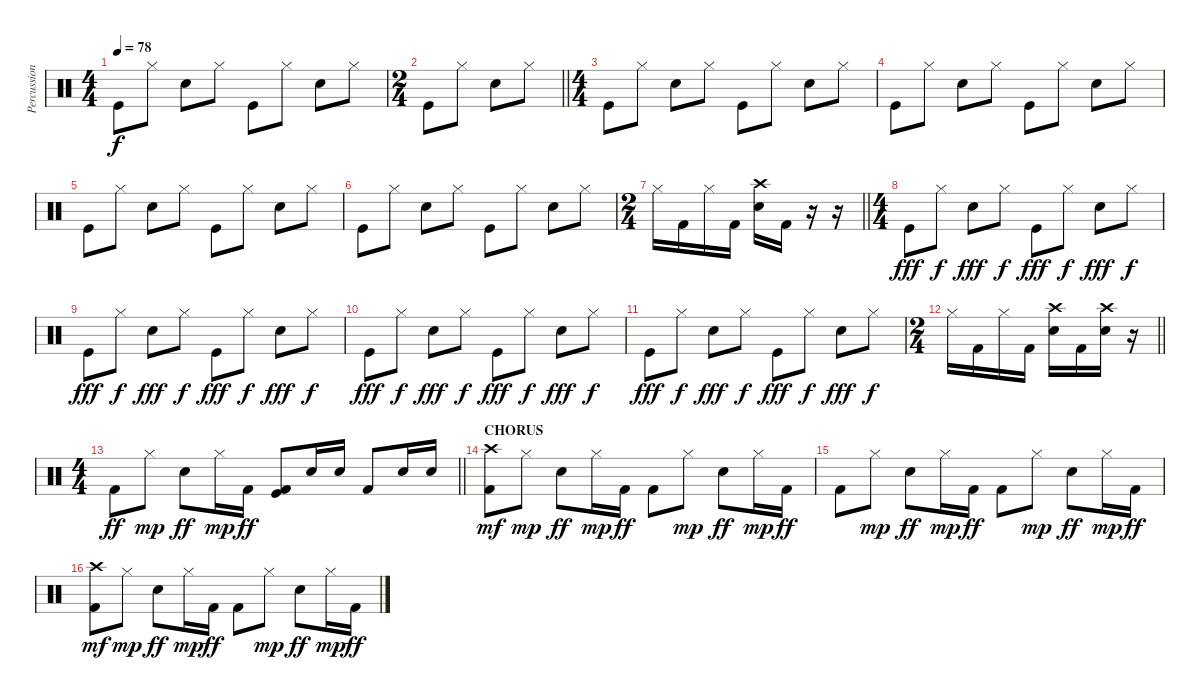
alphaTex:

\track ("Percussion" "Percussion") {instrument percussion}
\staff {score}
\articulation defaults
\ts (4 4)
\tempo 78
\clef neutral
\ks c "Kick (hit)".8{dy f} "Hi-Hat (closed)".8 "Electric Snare (hit)".8 "Hi-Hat (closed)".8 "Kick (hit)".8 "Hi-Hat (closed)".8 "Electric Snare (hit)".8 "Hi-Hat (closed)".8
|
\ts (2 4)
\barLineRight lightlight "Kick (hit)".8 "Hi-Hat (closed)".8 "Electric Snare (hit)".8 "Hi-Hat (closed)".8
|
\ts (4 4)
"Kick (hit)".8 "Hi-Hat (closed)".8 "Electric Snare (hit)".8 "Hi-Hat (closed)".8 "Kick (hit)".8 "Hi-Hat (closed)".8 "Electric Snare (hit)".8 "Hi-Hat (closed)".8 |
"Kick (hit)".8 "Hi-Hat (closed)".8 "Electric Snare (hit)".8 "Hi-Hat (closed)".8 "Kick (hit)".8 "Hi-Hat (closed)".8 "Electric Snare (hit)".8 "Hi-Hat (closed)".8 |
"Kick (hit)".8 "Hi-Hat (closed)".8 "Electric Snare (hit)".8 "Hi-Hat (closed)".8 "Kick (hit)".8 "Hi-Hat (closed)".8 "Electric Snare (hit)".8 "Hi-Hat (closed)".8 |
"Kick (hit)".8 "Hi-Hat (closed)".8 "Electric Snare (hit)".8 "Hi-Hat (closed)".8 "Kick (hit)".8 "Hi-Hat (closed)".8 "Electric Snare (hit)".8 "Hi-Hat (closed)".8 |
\ts (2 4)
\barLineRight lightlight "Hi-Hat (closed)".16 "Kick (hit) 2".16 "Hi-Hat (closed)".16 "Kick (hit) 2".16
("Crash high (hit)" "Snare (hit) 2").16 "Kick (hit) 2".16 r.16 r.16 |
\ts (4 4)
"Kick (hit)".8{dy fff} "Hi-Hat (closed)".8{dy f} "Electric Snare (hit)".8{dy fff} "Hi-Hat (closed)".8{dy f} "Kick (hit)".8{dy fff} "Hi-Hat (closed)".8{dy f} "Electric Snare (hit)".8{dy fff} "Hi-Hat (closed)".8{dy f} |
"Kick (hit)".8{dy fff} "Hi-Hat (closed)".8{dy f} "Electric Snare (hit)".8{dy fff} "Hi-Hat (closed)".8{dy f} "Kick (hit)".8{dy fff} "Hi-Hat (closed)".8{dy f} "Electric Snare (hit)".8{dy fff} "Hi-Hat (closed)".8{dy f} |
"Kick (hit)".8{dy fff} "Hi-Hat (closed)".8{dy f} "Electric Snare (hit)".8{dy fff} "Hi-Hat (closed)".8{dy f} "Kick (hit)".8{dy fff} "Hi-Hat (closed)".8{dy f} "Electric Snare (hit)".8{dy fff} "Hi-Hat (closed)".8{dy f} |
"Kick (hit)".8{dy fff} "Hi-Hat (closed)".8{dy f} "Electric Snare (hit)".8{dy fff} "Hi-Hat (closed)".8{dy f} "Kick (hit)".8{dy fff} "Hi-Hat (closed)".8{dy f} "Electric Snare (hit)".8{dy fff} "Hi-Hat (closed)".8{dy f} |
\ts (2 4)
\barLineRight lightlight "Hi-Hat (closed)".16 "Kick (hit) 2".16 "Hi-Hat (closed)".16 "Kick (hit) 2".16
("Crash high (hit)" "Snare (hit) 2").16 "Kick (hit) 2".16 ("Crash high (hit)" "Snare (hit) 2").16 r.16 |
\ts (4 4)
\barLineRight lightlight "Kick (hit) 2".8{dy ff} "Hi-Hat (closed)".8{dy mp} "Snare (hit) 2".8{dy ff} "Hi-Hat (closed)".16{dy mp} "Kick (hit) 2".16{dy ff}
("Kick (hit) 2" "Kick (hit)").8 "Electric Snare (hit)".16 "Electric Snare (hit)".16 "Kick (hit) 2".8 "Electric Snare (hit)".16 "Electric Snare (hit)".16 |
\section ("" "CHORUS")
("Kick (hit) 2" "Crash high (hit)").8{dy mf} "Hi-Hat (closed)".8{dy mp} "Snare (hit) 2".8{dy ff} "Hi-Hat (closed)".16{dy mp} "Kick (hit) 2".16{dy ff} "Kick (hit) 2".8 "Hi-Hat (closed)".8{dy mp} "Snare (hit) 2".8{dy ff} "Hi-Hat (closed)".16{dy mp} "Kick (hit) 2".16{dy ff} |
"Kick (hit) 2".8 "Hi-Hat (closed)".8{dy mp} "Snare (hit) 2".8{dy ff} "Hi-Hat (closed)".16{dy mp} "Kick (hit) 2".16{dy ff} "Kick (hit) 2".8 "Hi-Hat (closed)".8{dy mp} "Snare (hit) 2".8{dy ff} "Hi-Hat (closed)".16{dy mp} "Kick (hit) 2".16{dy ff} |
("Kick (hit) 2" "Crash high (hit)").8{dy mf} "Hi-Hat (closed)".8{dy mp} "Snare (hit) 2".8{dy ff} "Hi-Hat (closed)".16{dy mp} "Kick (hit) 2".16{dy ff} "Kick (hit) 2".8 "Hi-Hat (closed)".8{dy mp} "Snare (hit) 2".8{dy ff} "Hi-Hat (closed)".16{dy mp} "Kick (hit) 2".16{dy ff}
